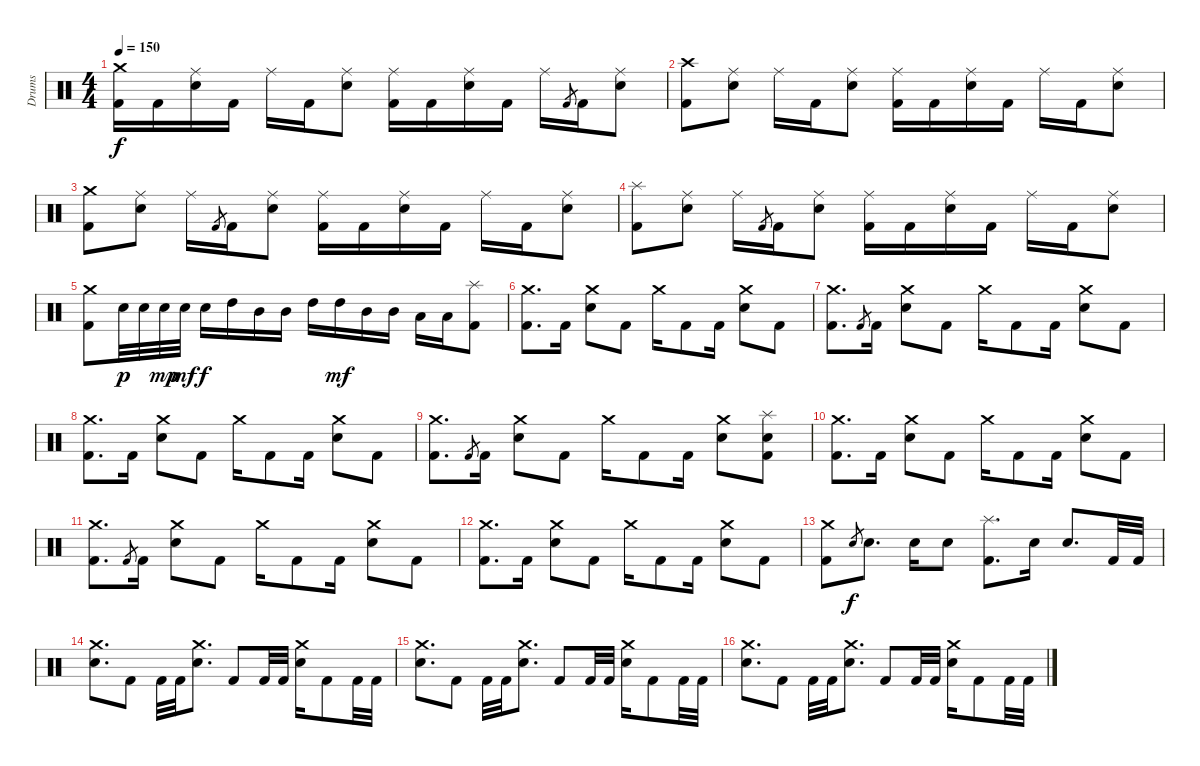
\track ("Drums" "Drums") {instrument percussion}
\staff {score}
\articulation defaults
\ts (4 4)
\tempo 150
\clef neutral
\ks c
("Crash medium (hit)" "Kick (hit) 2").16{dy f} "Kick (hit) 2".16 ("Ride (middle)" "Electric Snare (hit)").16 "Kick (hit) 2".16 "Ride (middle)".16 "Kick (hit) 2".16 ("Ride (middle)" "Electric Snare (hit)").8 ("Ride (middle)" "Kick (hit) 2").16 "Kick (hit) 2".16 ("Ride (middle)" "Electric Snare (hit)").16 "Kick (hit) 2".16 "Ride (middle)".16 "Kick (hit) 2".8{gr} "Kick (hit) 2".16 ("Ride (middle)" "Electric Snare (hit)").8 |
("Crash high (hit)" "Kick (hit) 2").8 ("Ride (middle)" "Electric Snare (hit)").8 "Ride (middle)".16 "Kick (hit) 2".16 ("Ride (middle)" "Electric Snare (hit)").8 ("Ride (middle)" "Kick (hit) 2").16 "Kick (hit) 2".16 ("Ride (middle)" "Electric Snare (hit)").16 "Kick (hit) 2".16 "Ride (middle)".16 "Kick (hit) 2".16 ("Ride (middle)" "Electric Snare (hit)").8 |
("Crash medium (hit)" "Kick (hit) 2").8 ("Ride (middle)" "Electric Snare (hit)").8 "Ride (middle)".16 "Kick (hit) 2".8{gr} "Kick (hit) 2".16 ("Ride (middle)" "Electric Snare (hit)").8 ("Ride (middle)" "Kick (hit) 2").16 "Kick (hit) 2".16 ("Ride (middle)" "Electric Snare (hit)").16 "Kick (hit) 2".16 "Ride (middle)".16 "Kick (hit) 2".16 ("Ride (middle)" "Electric Snare (hit)").8 |
("Splash (hit)" "Kick (hit) 2").8 ("Ride (middle)" "Electric Snare (hit)").8 "Ride (middle)".16 "Kick (hit) 2".8{gr} "Kick (hit) 2".16 ("Ride (middle)" "Electric Snare (hit)").8 ("Ride (middle)" "Kick (hit) 2").16 "Kick (hit) 2".16 ("Ride (middle)" "Electric Snare (hit)").16 "Kick (hit) 2".16 "Ride (middle)".16 "Kick (hit) 2".16 ("Ride (middle)" "Electric Snare (hit)").8 |
("Crash medium (hit)" "Kick (hit) 2").8 "Electric Snare (hit)".32{dy p} "Electric Snare (hit)".32 "Electric Snare (hit)".32{dy mp} "Electric Snare (hit)".32{dy mf} "Electric Snare (hit)".16{dy f} "High Tom (hit)".16 "Mid Tom (hit)".16 "Mid Tom (hit)".16 "High Tom (hit)".16 "High Tom (hit)".16{dy mf} "Mid Tom (hit)".16 "Mid Tom (hit)".16 "Low Tom (hit)".16 "Low Tom (hit)".16 ("Splash (hit)" "Kick (hit) 2").8 |
("Crash medium (hit)" "Kick (hit) 2").8{d} "Kick (hit) 2".16 ("Crash medium (hit)" "Electric Snare (hit)").8 "Kick (hit) 2".8 "Crash medium (hit)".16 "Kick (hit) 2".8 "Kick (hit) 2".16 ("Crash medium (hit)" "Electric Snare (hit)").8 "Kick (hit) 2".8 |
("Crash medium (hit)" "Kick (hit) 2").8{d} "Kick (hit) 2".8{gr} "Kick (hit) 2".16 ("Crash medium (hit)" "Electric Snare (hit)").8 "Kick (hit) 2".8 "Crash medium (hit)".16 "Kick (hit) 2".8 "Kick (hit) 2".16 ("Crash medium (hit)" "Electric Snare (hit)").8 "Kick (hit) 2".8 |
("Crash medium (hit)" "Kick (hit) 2").8{d} "Kick (hit) 2".16 ("Crash medium (hit)" "Electric Snare (hit)").8 "Kick (hit) 2".8 "Crash medium (hit)".16 "Kick (hit) 2".8 "Kick (hit) 2".16 ("Crash medium (hit)" "Electric Snare (hit)").8 "Kick (hit) 2".8 |
("Crash medium (hit)" "Kick (hit) 2").8{d} "Kick (hit) 2".8{gr} "Kick (hit) 2".16 ("Crash medium (hit)" "Electric Snare (hit)").8 "Kick (hit) 2".8 "Crash medium (hit)".16 "Kick (hit) 2".8 "Kick (hit) 2".16 ("Crash medium (hit)" "Electric Snare (hit)").8 ("Splash (hit)" "Electric Snare (hit)" "Kick (hit) 2").8 |
("Crash medium (hit)" "Kick (hit) 2").8{d} "Kick (hit) 2".16 ("Crash medium (hit)" "Electric Snare (hit)").8 "Kick (hit) 2".8 "Crash medium (hit)".16 "Kick (hit) 2".8 "Kick (hit) 2".16 ("Crash medium (hit)" "Electric Snare (hit)").8 "Kick (hit) 2".8 |
("Crash medium (hit)" "Kick (hit) 2").8{d} "Kick (hit) 2".8{gr} "Kick (hit) 2".16 ("Crash medium (hit)" "Electric Snare (hit)").8 "Kick (hit) 2".8 "Crash medium (hit)".16 "Kick (hit) 2".8 "Kick (hit) 2".16 ("Crash medium (hit)" "Electric Snare (hit)").8 "Kick (hit) 2".8 |
("Crash medium (hit)" "Kick (hit) 2").8{d} "Kick (hit) 2".16 ("Crash medium (hit)" "Electric Snare (hit)").8 "Kick (hit) 2".8 "Crash medium (hit)".16 "Kick (hit) 2".8 "Kick (hit) 2".16 ("Crash medium (hit)" "Electric Snare (hit)").8 "Kick (hit) 2".8 |
("Crash medium (hit)" "Kick (hit) 2").8 "Electric Snare (hit)".8{gr dy f} "Electric Snare (hit)".8{d} "Electric Snare (hit)".16 "Electric Snare (hit)".8 ("Splash (hit)" "Kick (hit) 2").8{d} "Electric Snare (hit)".16 "Electric Snare (hit)".8{d} "Kick (hit) 2".32 "Kick (hit) 2".32 |
("Crash medium (hit)" "Electric Snare (hit)").8{d} "Kick (hit) 2".8 "Kick (hit) 2".32 "Kick (hit) 2".32 ("Crash medium (hit)" "Electric Snare (hit)").8{d} "Kick (hit) 2".8 "Kick (hit) 2".32 "Kick (hit) 2".32 ("Crash medium (hit)" "Electric Snare (hit)").16 "Kick (hit) 2".8 "Kick (hit) 2".32 "Kick (hit) 2".32 |
("Crash medium (hit)" "Electric Snare (hit)").8{d} "Kick (hit) 2".8 "Kick (hit) 2".32 "Kick (hit) 2".32 ("Crash medium (hit)" "Electric Snare (hit)").8{d} "Kick (hit) 2".8 "Kick (hit) 2".32 "Kick (hit) 2".32 ("Crash medium (hit)" "Electric Snare (hit)").16 "Kick (hit) 2".8 "Kick (hit) 2".32 "Kick (hit) 2".32 |
("Crash medium (hit)" "Electric Snare (hit)").8{d} "Kick (hit) 2".8 "Kick (hit) 2".32 "Kick (hit) 2".32 ("Crash medium (hit)" "Electric Snare (hit)").8{d} "Kick (hit) 2".8 "Kick (hit) 2".32 "Kick (hit) 2".32 ("Crash medium (hit)" "Electric Snare (hit)").16 "Kick (hit) 2".8 "Kick (hit) 2".32 "Kick (hit) 2".32
